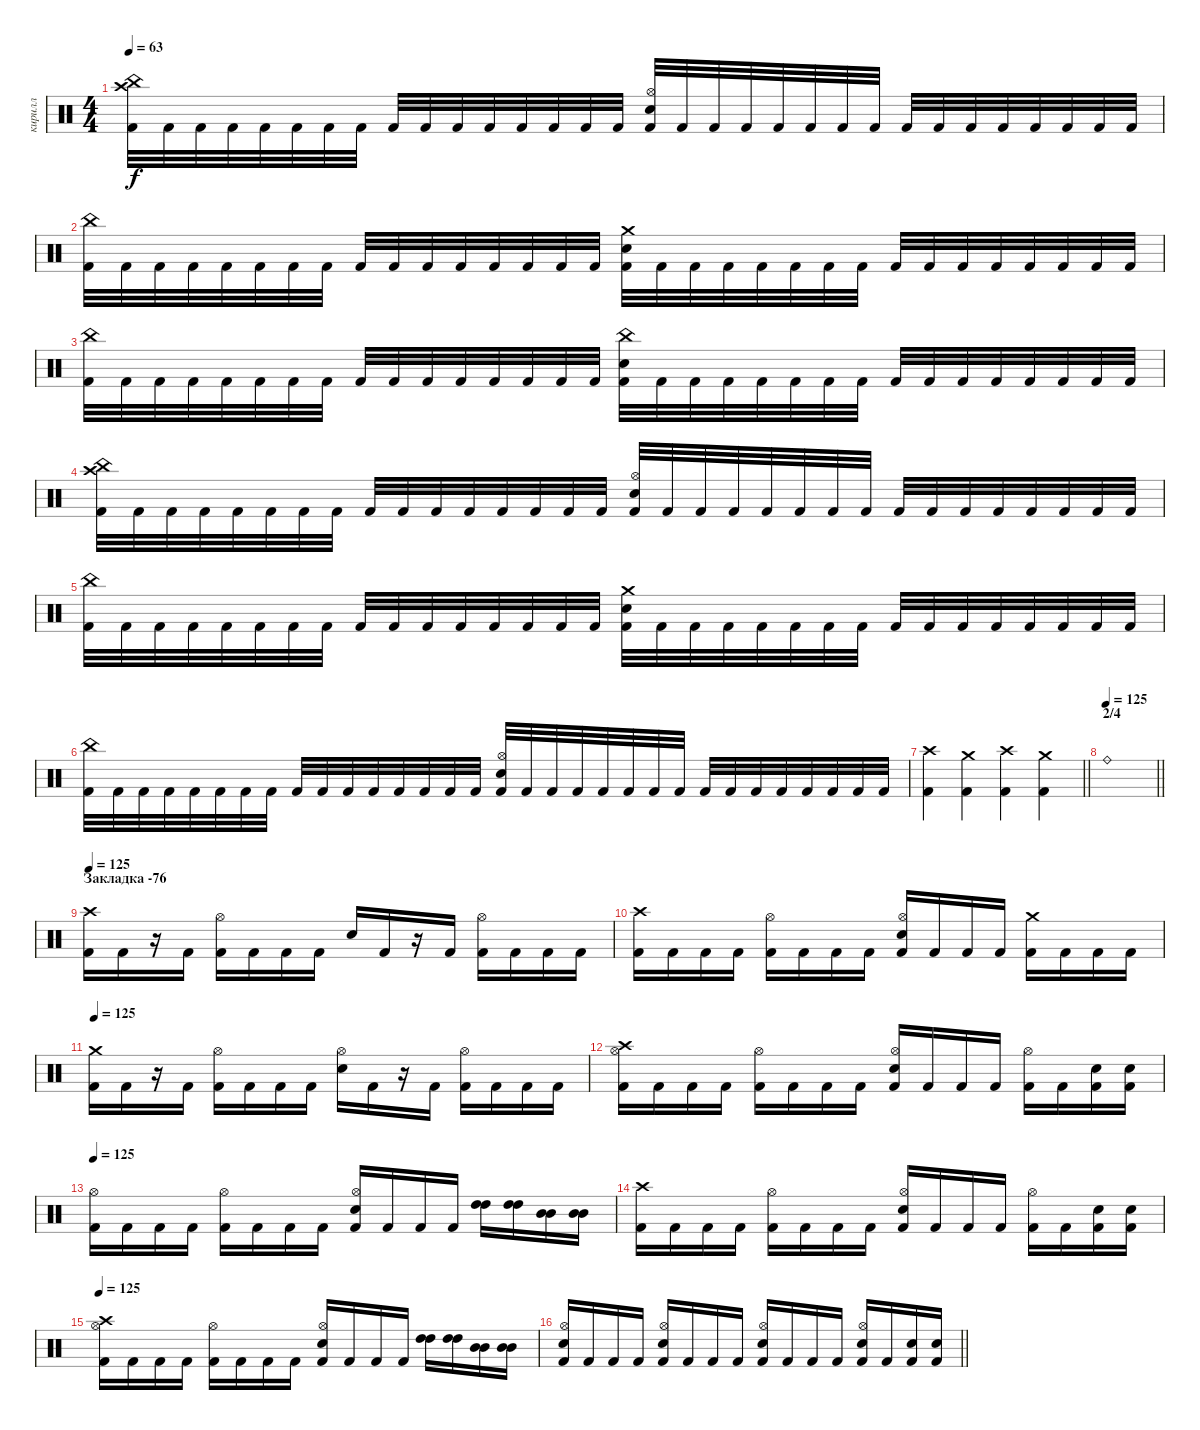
\track ("кирилл" "кирилл") {instrument percussion}
\staff {score}
\articulation defaults
\ts (4 4)
\tempo 63
\clef neutral
\ks c
("China (hit)" "Crash high (hit)" "Kick (hit) 2").32{dy f} "Kick (hit) 2".32 "Kick (hit) 2".32 "Kick (hit) 2".32 "Kick (hit) 2".32 "Kick (hit) 2".32 "Kick (hit) 2".32 "Kick (hit) 2".32 "Kick (hit) 2".32 "Kick (hit) 2".32 "Kick (hit) 2".32 "Kick (hit) 2".32 "Kick (hit) 2".32 "Kick (hit) 2".32 "Kick (hit) 2".32 "Kick (hit) 2".32 ("Hi-Hat (open)" "Electric Snare (hit)" "Kick (hit) 2").32 "Kick (hit) 2".32 "Kick (hit) 2".32 "Kick (hit) 2".32 "Kick (hit) 2".32 "Kick (hit) 2".32 "Kick (hit) 2".32 "Kick (hit) 2".32 "Kick (hit) 2".32 "Kick (hit) 2".32 "Kick (hit) 2".32 "Kick (hit) 2".32 "Kick (hit) 2".32 "Kick (hit) 2".32 "Kick (hit) 2".32 "Kick (hit) 2".32 |
("China (hit)" "Kick (hit) 2").32 "Kick (hit) 2".32 "Kick (hit) 2".32 "Kick (hit) 2".32 "Kick (hit) 2".32 "Kick (hit) 2".32 "Kick (hit) 2".32 "Kick (hit) 2".32 "Kick (hit) 2".32 "Kick (hit) 2".32 "Kick (hit) 2".32 "Kick (hit) 2".32 "Kick (hit) 2".32 "Kick (hit) 2".32 "Kick (hit) 2".32 "Kick (hit) 2".32 ("Crash medium (hit)" "Electric Snare (hit)" "Kick (hit) 2").32 "Kick (hit) 2".32 "Kick (hit) 2".32 "Kick (hit) 2".32 "Kick (hit) 2".32 "Kick (hit) 2".32 "Kick (hit) 2".32 "Kick (hit) 2".32 "Kick (hit) 2".32 "Kick (hit) 2".32 "Kick (hit) 2".32 "Kick (hit) 2".32 "Kick (hit) 2".32 "Kick (hit) 2".32 "Kick (hit) 2".32 "Kick (hit) 2".32 |
("China (hit)" "Kick (hit) 2").32 "Kick (hit) 2".32 "Kick (hit) 2".32 "Kick (hit) 2".32 "Kick (hit) 2".32 "Kick (hit) 2".32 "Kick (hit) 2".32 "Kick (hit) 2".32 "Kick (hit) 2".32 "Kick (hit) 2".32 "Kick (hit) 2".32 "Kick (hit) 2".32 "Kick (hit) 2".32 "Kick (hit) 2".32 "Kick (hit) 2".32 "Kick (hit) 2".32 ("China (hit)" "Electric Snare (hit)" "Kick (hit) 2").32 "Kick (hit) 2".32 "Kick (hit) 2".32 "Kick (hit) 2".32 "Kick (hit) 2".32 "Kick (hit) 2".32 "Kick (hit) 2".32 "Kick (hit) 2".32 "Kick (hit) 2".32 "Kick (hit) 2".32 "Kick (hit) 2".32 "Kick (hit) 2".32 "Kick (hit) 2".32 "Kick (hit) 2".32 "Kick (hit) 2".32 "Kick (hit) 2".32 |
("China (hit)" "Crash high (hit)" "Kick (hit) 2").32 "Kick (hit) 2".32 "Kick (hit) 2".32 "Kick (hit) 2".32 "Kick (hit) 2".32 "Kick (hit) 2".32 "Kick (hit) 2".32 "Kick (hit) 2".32 "Kick (hit) 2".32 "Kick (hit) 2".32 "Kick (hit) 2".32 "Kick (hit) 2".32 "Kick (hit) 2".32 "Kick (hit) 2".32 "Kick (hit) 2".32 "Kick (hit) 2".32 ("Hi-Hat (open)" "Electric Snare (hit)" "Kick (hit) 2").32 "Kick (hit) 2".32 "Kick (hit) 2".32 "Kick (hit) 2".32 "Kick (hit) 2".32 "Kick (hit) 2".32 "Kick (hit) 2".32 "Kick (hit) 2".32 "Kick (hit) 2".32 "Kick (hit) 2".32 "Kick (hit) 2".32 "Kick (hit) 2".32 "Kick (hit) 2".32 "Kick (hit) 2".32 "Kick (hit) 2".32 "Kick (hit) 2".32 |
("China (hit)" "Kick (hit) 2").32 "Kick (hit) 2".32 "Kick (hit) 2".32 "Kick (hit) 2".32 "Kick (hit) 2".32 "Kick (hit) 2".32 "Kick (hit) 2".32 "Kick (hit) 2".32 "Kick (hit) 2".32 "Kick (hit) 2".32 "Kick (hit) 2".32 "Kick (hit) 2".32 "Kick (hit) 2".32 "Kick (hit) 2".32 "Kick (hit) 2".32 "Kick (hit) 2".32 ("Crash medium (hit)" "Electric Snare (hit)" "Kick (hit) 2").32 "Kick (hit) 2".32 "Kick (hit) 2".32 "Kick (hit) 2".32 "Kick (hit) 2".32 "Kick (hit) 2".32 "Kick (hit) 2".32 "Kick (hit) 2".32 "Kick (hit) 2".32 "Kick (hit) 2".32 "Kick (hit) 2".32 "Kick (hit) 2".32 "Kick (hit) 2".32 "Kick (hit) 2".32 "Kick (hit) 2".32 "Kick (hit) 2".32 |
("China (hit)" "Kick (hit) 2").32 "Kick (hit) 2".32 "Kick (hit) 2".32 "Kick (hit) 2".32 "Kick (hit) 2".32 "Kick (hit) 2".32 "Kick (hit) 2".32 "Kick (hit) 2".32 "Kick (hit) 2".32 "Kick (hit) 2".32 "Kick (hit) 2".32 "Kick (hit) 2".32 "Kick (hit) 2".32 "Kick (hit) 2".32 "Kick (hit) 2".32 "Kick (hit) 2".32 ("Hi-Hat (open)" "Electric Snare (hit)" "Kick (hit) 2").32 "Kick (hit) 2".32 "Kick (hit) 2".32 "Kick (hit) 2".32 "Kick (hit) 2".32 "Kick (hit) 2".32 "Kick (hit) 2".32 "Kick (hit) 2".32 "Kick (hit) 2".32 "Kick (hit) 2".32 "Kick (hit) 2".32 "Kick (hit) 2".32 "Kick (hit) 2".32 "Kick (hit) 2".32 "Kick (hit) 2".32 "Kick (hit) 2".32 |
\barLineRight lightlight
("Crash high (hit)" "Kick (hit) 2").4 ("Crash medium (hit)" "Kick (hit) 2").4 ("Crash high (hit)" "Kick (hit) 2").4 ("Crash medium (hit)" "Kick (hit) 2").4 |
\section ("" "2/4")
\tempo 125
\barLineRight lightlight "Ride (bell)".1
|
\section ("" "Закладка -76")
\tempo 125
("Crash high (hit)" "Kick (hit) 2").16 "Kick (hit) 2".16 r.16 "Kick (hit) 2".16 ("Hi-Hat (open)" "Kick (hit) 2").16 "Kick (hit) 2".16 "Kick (hit) 2".16 "Kick (hit) 2".16 "Electric Snare (hit)".16 "Kick (hit) 2".16 r.16 "Kick (hit) 2".16 ("Hi-Hat (open)" "Kick (hit) 2").16 "Kick (hit) 2".16 "Kick (hit) 2".16 "Kick (hit) 2".16 |
("Crash high (hit)" "Kick (hit) 2").16 "Kick (hit) 2".16 "Kick (hit) 2".16 "Kick (hit) 2".16 ("Hi-Hat (open)" "Kick (hit) 2").16 "Kick (hit) 2".16 "Kick (hit) 2".16 "Kick (hit) 2".16 ("Hi-Hat (open)" "Electric Snare (hit)" "Kick (hit) 2").16 "Kick (hit) 2".16 "Kick (hit) 2".16 "Kick (hit) 2".16 ("Crash medium (hit)" "Kick (hit) 2").16 "Kick (hit) 2".16 "Kick (hit) 2".16 "Kick (hit) 2".16 |
\tempo 125
("Crash medium (hit)" "Kick (hit) 2").16 "Kick (hit) 2".16 r.16 "Kick (hit) 2".16 ("Hi-Hat (open)" "Kick (hit) 2").16 "Kick (hit) 2".16 "Kick (hit) 2".16 "Kick (hit) 2".16 ("Hi-Hat (open)" "Electric Snare (hit)").16 "Kick (hit) 2".16 r.16 "Kick (hit) 2".16 ("Hi-Hat (open)" "Kick (hit) 2").16 "Kick (hit) 2".16 "Kick (hit) 2".16 "Kick (hit) 2".16 |
("Hi-Hat (open)" "Crash high (hit)" "Kick (hit) 2").16 "Kick (hit) 2".16 "Kick (hit) 2".16 "Kick (hit) 2".16 ("Hi-Hat (open)" "Kick (hit) 2").16 "Kick (hit) 2".16 "Kick (hit) 2".16 "Kick (hit) 2".16 ("Hi-Hat (open)" "Electric Snare (hit)" "Kick (hit) 2").16 "Kick (hit) 2".16 "Kick (hit) 2".16 "Kick (hit) 2".16 ("Hi-Hat (open)" "Kick (hit) 2").16 "Kick (hit) 2".16 ("Electric Snare (hit)" "Kick (hit) 2").16 ("Electric Snare (hit)" "Kick (hit) 2").16 |
\tempo 125
("Hi-Hat (open)" "Kick (hit) 2").16 "Kick (hit) 2".16 "Kick (hit) 2".16 "Kick (hit) 2".16 ("Hi-Hat (open)" "Kick (hit) 2").16 "Kick (hit) 2".16 "Kick (hit) 2".16 "Kick (hit) 2".16 ("Hi-Hat (open)" "Electric Snare (hit)" "Kick (hit) 2").16 "Kick (hit) 2".16 "Kick (hit) 2".16 "Kick (hit) 2".16 ("High Tom (hit)" "High Tom (hit)").16 ("High Tom (hit)" "High Tom (hit)").16 ("Mid Tom (hit)" "Mid Tom (hit)").16 ("Mid Tom (hit)" "Mid Tom (hit)").16 |
("Crash high (hit)" "Kick (hit) 2").16 "Kick (hit) 2".16 "Kick (hit) 2".16 "Kick (hit) 2".16 ("Hi-Hat (open)" "Kick (hit) 2").16 "Kick (hit) 2".16 "Kick (hit) 2".16 "Kick (hit) 2".16 ("Hi-Hat (open)" "Electric Snare (hit)" "Kick (hit) 2").16 "Kick (hit) 2".16 "Kick (hit) 2".16 "Kick (hit) 2".16 ("Hi-Hat (open)" "Kick (hit) 2").16 "Kick (hit) 2".16 ("Electric Snare (hit)" "Kick (hit) 2").16 ("Electric Snare (hit)" "Kick (hit) 2").16 |
\tempo 125
("Hi-Hat (open)" "Crash high (hit)" "Kick (hit) 2").16 "Kick (hit) 2".16 "Kick (hit) 2".16 "Kick (hit) 2".16 ("Hi-Hat (open)" "Kick (hit) 2").16 "Kick (hit) 2".16 "Kick (hit) 2".16 "Kick (hit) 2".16 ("Hi-Hat (open)" "Electric Snare (hit)" "Kick (hit) 2").16 "Kick (hit) 2".16 "Kick (hit) 2".16 "Kick (hit) 2".16 ("High Tom (hit)" "High Tom (hit)").16 ("High Tom (hit)" "High Tom (hit)").16 ("Mid Tom (hit)" "Mid Tom (hit)").16 ("Mid Tom (hit)" "Mid Tom (hit)").16 |
\barLineRight lightlight
("Hi-Hat (open)" "Electric Snare (hit)" "Kick (hit) 2").16 "Kick (hit) 2".16 "Kick (hit) 2".16 "Kick (hit) 2".16 ("Hi-Hat (open)" "Electric Snare (hit)" "Kick (hit) 2").16 "Kick (hit) 2".16 "Kick (hit) 2".16 "Kick (hit) 2".16 ("Hi-Hat (open)" "Electric Snare (hit)" "Kick (hit) 2").16 "Kick (hit) 2".16 "Kick (hit) 2".16 "Kick (hit) 2".16 ("Hi-Hat (open)" "Electric Snare (hit)" "Kick (hit) 2").16 "Kick (hit) 2".16 ("Electric Snare (hit)" "Kick (hit) 2").16 ("Electric Snare (hit)" "Kick (hit) 2").16
